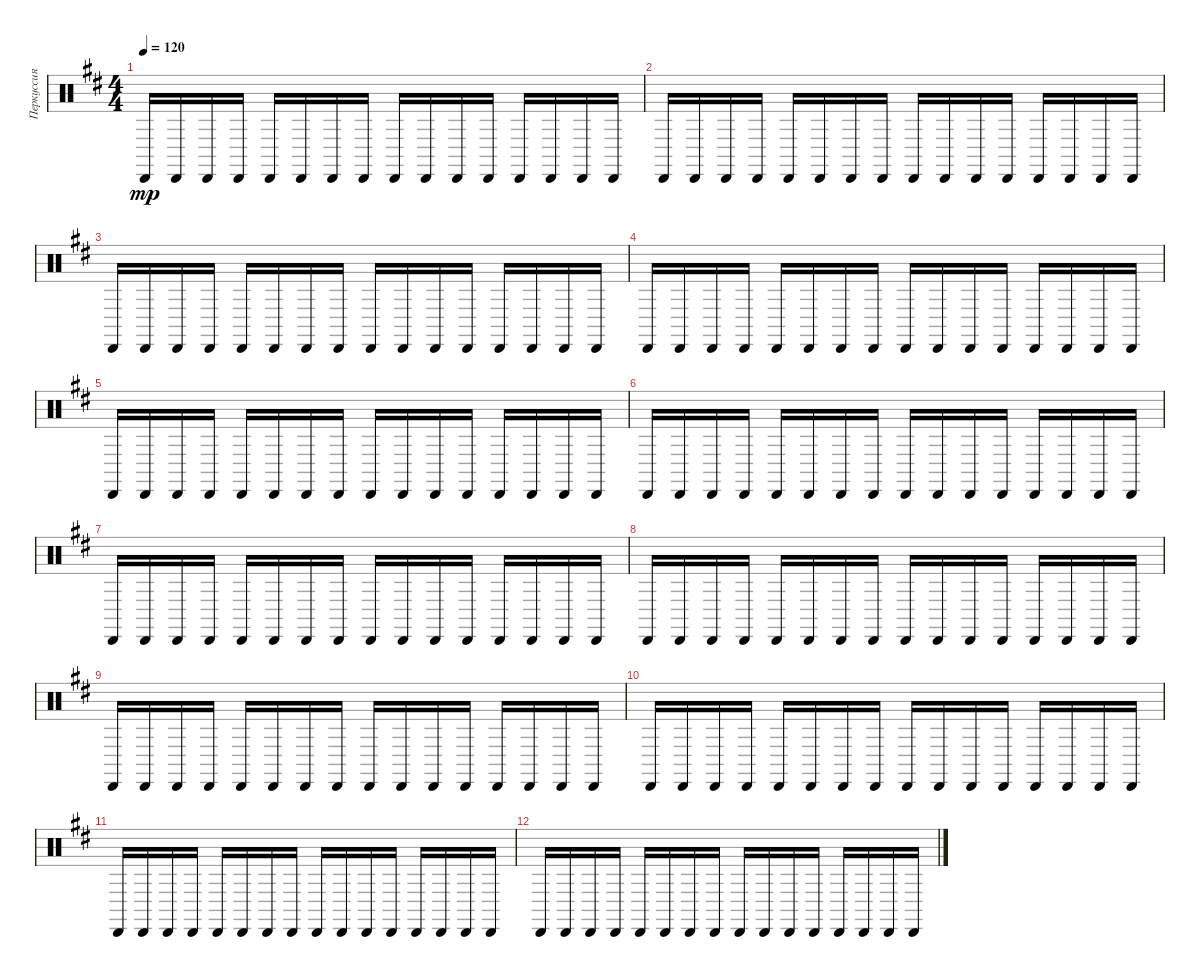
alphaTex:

\track ("Перкуссия" "Перкуссия") {instrument percussion}
\staff {score}
\articulation defaults
\ts (4 4)
\tempo 120
\clef neutral
\ks d "Cabasa (hit)".16{dy mp} "Cabasa (hit)".16 "Cabasa (hit)".16 "Cabasa (hit)".16 "Cabasa (hit)".16 "Cabasa (hit)".16 "Cabasa (hit)".16 "Cabasa (hit)".16 "Cabasa (hit)".16 "Cabasa (hit)".16 "Cabasa (hit)".16 "Cabasa (hit)".16 "Cabasa (hit)".16 "Cabasa (hit)".16 "Cabasa (hit)".16 "Cabasa (hit)".16
|
"Cabasa (hit)".16 "Cabasa (hit)".16 "Cabasa (hit)".16 "Cabasa (hit)".16 "Cabasa (hit)".16 "Cabasa (hit)".16 "Cabasa (hit)".16 "Cabasa (hit)".16 "Cabasa (hit)".16 "Cabasa (hit)".16 "Cabasa (hit)".16 "Cabasa (hit)".16 "Cabasa (hit)".16 "Cabasa (hit)".16 "Cabasa (hit)".16 "Cabasa (hit)".16 |
"Cabasa (hit)".16 "Cabasa (hit)".16 "Cabasa (hit)".16 "Cabasa (hit)".16 "Cabasa (hit)".16 "Cabasa (hit)".16 "Cabasa (hit)".16 "Cabasa (hit)".16 "Cabasa (hit)".16 "Cabasa (hit)".16 "Cabasa (hit)".16 "Cabasa (hit)".16 "Cabasa (hit)".16 "Cabasa (hit)".16 "Cabasa (hit)".16 "Cabasa (hit)".16 |
"Cabasa (hit)".16 "Cabasa (hit)".16 "Cabasa (hit)".16 "Cabasa (hit)".16 "Cabasa (hit)".16 "Cabasa (hit)".16 "Cabasa (hit)".16 "Cabasa (hit)".16 "Cabasa (hit)".16 "Cabasa (hit)".16 "Cabasa (hit)".16 "Cabasa (hit)".16 "Cabasa (hit)".16 "Cabasa (hit)".16 "Cabasa (hit)".16 "Cabasa (hit)".16 |
"Cabasa (hit)".16 "Cabasa (hit)".16 "Cabasa (hit)".16 "Cabasa (hit)".16 "Cabasa (hit)".16 "Cabasa (hit)".16 "Cabasa (hit)".16 "Cabasa (hit)".16 "Cabasa (hit)".16 "Cabasa (hit)".16 "Cabasa (hit)".16 "Cabasa (hit)".16 "Cabasa (hit)".16 "Cabasa (hit)".16 "Cabasa (hit)".16 "Cabasa (hit)".16 |
\ks bminor "Cabasa (hit)".16 "Cabasa (hit)".16 "Cabasa (hit)".16 "Cabasa (hit)".16 "Cabasa (hit)".16 "Cabasa (hit)".16 "Cabasa (hit)".16 "Cabasa (hit)".16 "Cabasa (hit)".16 "Cabasa (hit)".16 "Cabasa (hit)".16 "Cabasa (hit)".16 "Cabasa (hit)".16 "Cabasa (hit)".16 "Cabasa (hit)".16 "Cabasa (hit)".16
|
"Cabasa (hit)".16 "Cabasa (hit)".16 "Cabasa (hit)".16 "Cabasa (hit)".16 "Cabasa (hit)".16 "Cabasa (hit)".16 "Cabasa (hit)".16 "Cabasa (hit)".16 "Cabasa (hit)".16 "Cabasa (hit)".16 "Cabasa (hit)".16 "Cabasa (hit)".16 "Cabasa (hit)".16 "Cabasa (hit)".16 "Cabasa (hit)".16 "Cabasa (hit)".16 |
"Cabasa (hit)".16 "Cabasa (hit)".16 "Cabasa (hit)".16 "Cabasa (hit)".16 "Cabasa (hit)".16 "Cabasa (hit)".16 "Cabasa (hit)".16 "Cabasa (hit)".16 "Cabasa (hit)".16 "Cabasa (hit)".16 "Cabasa (hit)".16 "Cabasa (hit)".16 "Cabasa (hit)".16 "Cabasa (hit)".16 "Cabasa (hit)".16 "Cabasa (hit)".16 |
"Cabasa (hit)".16 "Cabasa (hit)".16 "Cabasa (hit)".16 "Cabasa (hit)".16 "Cabasa (hit)".16 "Cabasa (hit)".16 "Cabasa (hit)".16 "Cabasa (hit)".16 "Cabasa (hit)".16 "Cabasa (hit)".16 "Cabasa (hit)".16 "Cabasa (hit)".16 "Cabasa (hit)".16 "Cabasa (hit)".16 "Cabasa (hit)".16 "Cabasa (hit)".16 |
"Cabasa (hit)".16 "Cabasa (hit)".16 "Cabasa (hit)".16 "Cabasa (hit)".16 "Cabasa (hit)".16 "Cabasa (hit)".16 "Cabasa (hit)".16 "Cabasa (hit)".16 "Cabasa (hit)".16 "Cabasa (hit)".16 "Cabasa (hit)".16 "Cabasa (hit)".16 "Cabasa (hit)".16 "Cabasa (hit)".16 "Cabasa (hit)".16 "Cabasa (hit)".16 |
"Cabasa (hit)".16 "Cabasa (hit)".16 "Cabasa (hit)".16 "Cabasa (hit)".16 "Cabasa (hit)".16 "Cabasa (hit)".16 "Cabasa (hit)".16 "Cabasa (hit)".16 "Cabasa (hit)".16 "Cabasa (hit)".16 "Cabasa (hit)".16 "Cabasa (hit)".16 "Cabasa (hit)".16 "Cabasa (hit)".16 "Cabasa (hit)".16 "Cabasa (hit)".16 |
"Cabasa (hit)".16 "Cabasa (hit)".16 "Cabasa (hit)".16 "Cabasa (hit)".16 "Cabasa (hit)".16 "Cabasa (hit)".16 "Cabasa (hit)".16 "Cabasa (hit)".16 "Cabasa (hit)".16 "Cabasa (hit)".16 "Cabasa (hit)".16 "Cabasa (hit)".16 "Cabasa (hit)".16 "Cabasa (hit)".16 "Cabasa (hit)".16 "Cabasa (hit)".16
